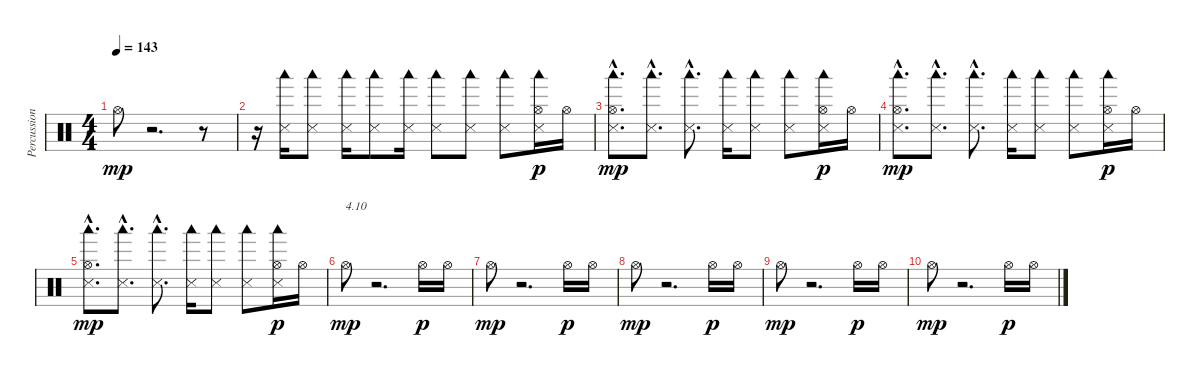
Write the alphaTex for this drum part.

\track ("Percussions" "Percussion") {instrument percussion}
\staff {score}
\articulation defaults
\ts (4 4)
\tempo 143
\clef neutral
\ks c "Hi-Hat (open)".8{dy mp}
r.2{d} r.8 |
r.16 ("Snare (side stick) 3" "Woodblock low (hit)").16 ("Snare (side stick) 3" "Woodblock low (hit)").8 ("Snare (side stick) 3" "Woodblock low (hit)").16 ("Snare (side stick) 3" "Woodblock low (hit)").8 ("Snare (side stick) 3" "Woodblock low (hit)").16 ("Snare (side stick) 3" "Woodblock low (hit)").8 ("Snare (side stick) 3" "Woodblock low (hit)").8 ("Snare (side stick) 3" "Woodblock low (hit)").8 ("Snare (side stick) 3" "Woodblock low (hit)" "Hi-Hat (open)").16{dy p} "Hi-Hat (open)".16 |
("Snare (side stick) 3"{hac} "Woodblock low (hit)"{hac} "Hi-Hat (open)"{hac}).8{d dy mp} ("Snare (side stick) 3"{hac} "Woodblock low (hit)"{hac}).8{d} ("Snare (side stick) 3"{hac} "Woodblock low (hit)"{hac}).8{d} ("Snare (side stick) 3" "Woodblock low (hit)").16 ("Snare (side stick) 3" "Woodblock low (hit)").8 ("Snare (side stick) 3" "Woodblock low (hit)").8 ("Snare (side stick) 3" "Woodblock low (hit)" "Hi-Hat (open)").16{dy p} "Hi-Hat (open)".16 |
("Snare (side stick) 3"{hac} "Woodblock low (hit)"{hac} "Hi-Hat (open)"{hac}).8{d dy mp} ("Snare (side stick) 3"{hac} "Woodblock low (hit)"{hac}).8{d} ("Snare (side stick) 3"{hac} "Woodblock low (hit)"{hac}).8{d} ("Snare (side stick) 3" "Woodblock low (hit)").16 ("Snare (side stick) 3" "Woodblock low (hit)").8 ("Snare (side stick) 3" "Woodblock low (hit)").8 ("Snare (side stick) 3" "Woodblock low (hit)" "Hi-Hat (open)").16{dy p} "Hi-Hat (open)".16 |
("Snare (side stick) 3"{hac} "Woodblock low (hit)"{hac} "Hi-Hat (open)"{hac}).8{d dy mp} ("Snare (side stick) 3"{hac} "Woodblock low (hit)"{hac}).8{d} ("Snare (side stick) 3"{hac} "Woodblock low (hit)"{hac}).8{d} ("Snare (side stick) 3" "Woodblock low (hit)").16 ("Snare (side stick) 3" "Woodblock low (hit)").8 ("Snare (side stick) 3" "Woodblock low (hit)").8 ("Snare (side stick) 3" "Woodblock low (hit)" "Hi-Hat (open)").16{dy p} "Hi-Hat (open)".16 |
"Hi-Hat (open)".8{txt "4.10" dy mp volume 4} r.2{d} "Hi-Hat (open)".16{dy p} "Hi-Hat (open)".16 |
"Hi-Hat (open)".8{dy mp} r.2{d} "Hi-Hat (open)".16{dy p} "Hi-Hat (open)".16 |
"Hi-Hat (open)".8{dy mp} r.2{d} "Hi-Hat (open)".16{dy p} "Hi-Hat (open)".16 |
"Hi-Hat (open)".8{dy mp} r.2{d} "Hi-Hat (open)".16{dy p} "Hi-Hat (open)".16 |
"Hi-Hat (open)".8{dy mp volume 0} r.2{d} "Hi-Hat (open)".16{dy p} "Hi-Hat (open)".16
